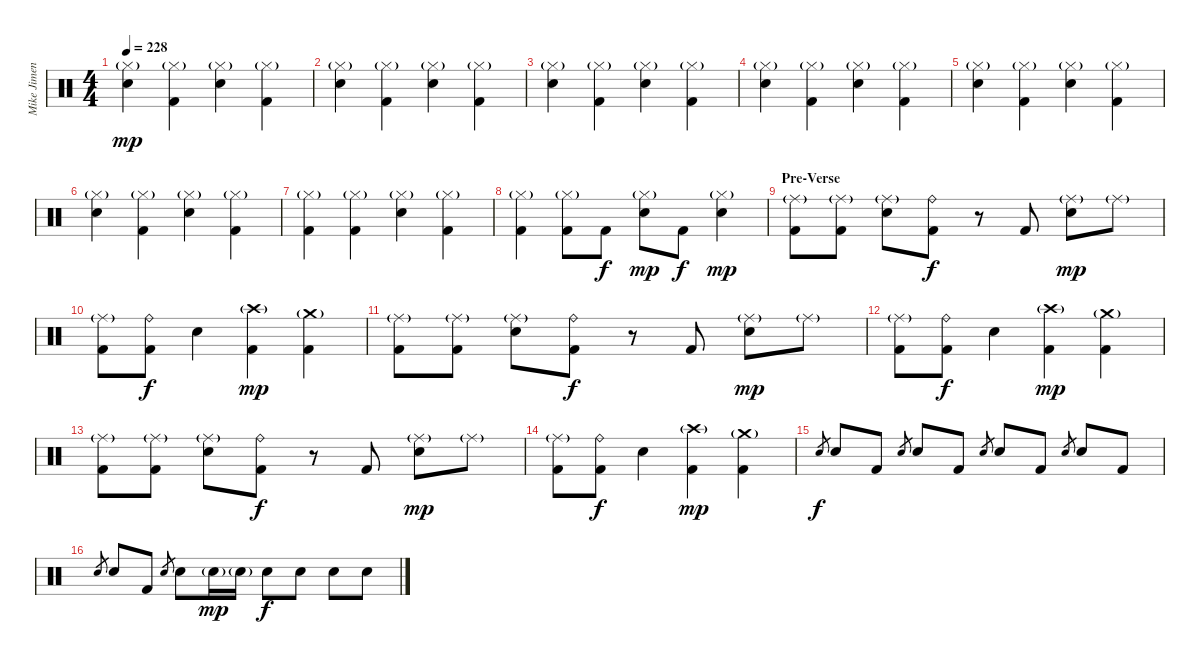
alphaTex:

\track ("Mike Jimenez" "Mike Jimen") {instrument percussion}
\staff {score}
\articulation defaults
\ts (4 4)
\tempo 228
\clef neutral
\ks c
("Hi-Hat (closed)"{g} "Electric Snare (hit)").4{dy mp} ("Hi-Hat (closed)"{g} "Kick (hit) 2").4 ("Hi-Hat (closed)"{g} "Electric Snare (hit)").4 ("Hi-Hat (closed)"{g} "Kick (hit) 2").4 |
("Hi-Hat (closed)"{g} "Electric Snare (hit)").4 ("Hi-Hat (closed)"{g} "Kick (hit) 2").4 ("Hi-Hat (closed)"{g} "Electric Snare (hit)").4 ("Hi-Hat (closed)"{g} "Kick (hit) 2").4 |
("Hi-Hat (closed)"{g} "Electric Snare (hit)").4 ("Hi-Hat (closed)"{g} "Kick (hit) 2").4 ("Hi-Hat (closed)"{g} "Electric Snare (hit)").4 ("Hi-Hat (closed)"{g} "Kick (hit) 2").4 |
("Hi-Hat (closed)"{g} "Electric Snare (hit)").4 ("Hi-Hat (closed)"{g} "Kick (hit) 2").4 ("Hi-Hat (closed)"{g} "Electric Snare (hit)").4 ("Hi-Hat (closed)"{g} "Kick (hit) 2").4 |
("Hi-Hat (closed)"{g} "Electric Snare (hit)").4 ("Hi-Hat (closed)"{g} "Kick (hit) 2").4 ("Hi-Hat (closed)"{g} "Electric Snare (hit)").4 ("Hi-Hat (closed)"{g} "Kick (hit) 2").4 |
("Hi-Hat (closed)"{g} "Electric Snare (hit)").4 ("Hi-Hat (closed)"{g} "Kick (hit) 2").4 ("Hi-Hat (closed)"{g} "Electric Snare (hit)").4 ("Hi-Hat (closed)"{g} "Kick (hit) 2").4 |
("Hi-Hat (closed)"{g} "Kick (hit) 2").4 ("Hi-Hat (closed)"{g} "Kick (hit) 2").4 ("Hi-Hat (closed)"{g} "Electric Snare (hit)").4 ("Hi-Hat (closed)"{g} "Kick (hit) 2").4 |
("Hi-Hat (closed)"{g} "Kick (hit) 2").4 ("Hi-Hat (closed)"{g} "Kick (hit) 2").8 "Kick (hit) 2".8{dy f} ("Hi-Hat (closed)"{g} "Electric Snare (hit)").8{dy mp} "Kick (hit) 2".8{dy f} ("Hi-Hat (closed)"{g} "Electric Snare (hit)").4{dy mp} |
\section ("" "Pre-Verse")
("Ride (middle)"{g} "Kick (hit) 2").8 ("Ride (middle)"{g} "Kick (hit) 2").8 ("Ride (middle)"{g} "Electric Snare (hit)").8 ("Ride (bell)" "Kick (hit) 2").8{dy f} r.8 "Kick (hit) 2".8 ("Ride (middle)"{g} "Electric Snare (hit)").8{dy mp} "Ride (middle)"{g}.8 |
("Ride (middle)"{g} "Kick (hit) 2").8 ("Ride (bell)" "Kick (hit) 2").8{dy f} "Electric Snare (hit)".4 ("Crash high (hit)"{g} "Kick (hit) 2").4{dy mp} ("Crash medium (hit)"{g} "Kick (hit) 2").4 |
("Ride (middle)"{g} "Kick (hit) 2").8 ("Ride (middle)"{g} "Kick (hit) 2").8 ("Ride (middle)"{g} "Electric Snare (hit)").8 ("Ride (bell)" "Kick (hit) 2").8{dy f} r.8 "Kick (hit) 2".8 ("Ride (middle)"{g} "Electric Snare (hit)").8{dy mp} "Ride (middle)"{g}.8 |
("Ride (middle)"{g} "Kick (hit) 2").8 ("Ride (bell)" "Kick (hit) 2").8{dy f} "Electric Snare (hit)".4 ("Crash high (hit)"{g} "Kick (hit) 2").4{dy mp} ("Crash medium (hit)"{g} "Kick (hit) 2").4 |
("Ride (middle)"{g} "Kick (hit) 2").8 ("Ride (middle)"{g} "Kick (hit) 2").8 ("Ride (middle)"{g} "Electric Snare (hit)").8 ("Ride (bell)" "Kick (hit) 2").8{dy f} r.8 "Kick (hit) 2".8 ("Ride (middle)"{g} "Electric Snare (hit)").8{dy mp} "Ride (middle)"{g}.8 |
("Ride (middle)"{g} "Kick (hit) 2").8 ("Ride (bell)" "Kick (hit) 2").8{dy f} "Electric Snare (hit)".4 ("Crash high (hit)"{g} "Kick (hit) 2").4{dy mp} ("Crash medium (hit)"{g} "Kick (hit) 2").4 |
"Electric Snare (hit)".8{gr dy f} "Electric Snare (hit)".8 "Kick (hit) 2".8 "Electric Snare (hit)".8{gr} "Electric Snare (hit)".8 "Kick (hit) 2".8 "Electric Snare (hit)".8{gr} "Electric Snare (hit)".8 "Kick (hit) 2".8 "Electric Snare (hit)".8{gr} "Electric Snare (hit)".8 "Kick (hit) 2".8 |
"Electric Snare (hit)".8{gr} "Electric Snare (hit)".8 "Kick (hit) 2".8 "Electric Snare (hit)".8{gr} "Electric Snare (hit)".8 "Electric Snare (hit)"{g}.16{dy mp} "Electric Snare (hit)"{g}.16 "Electric Snare (hit)".8{dy f} "Electric Snare (hit)".8 "Electric Snare (hit)".8 "Electric Snare (hit)".8
